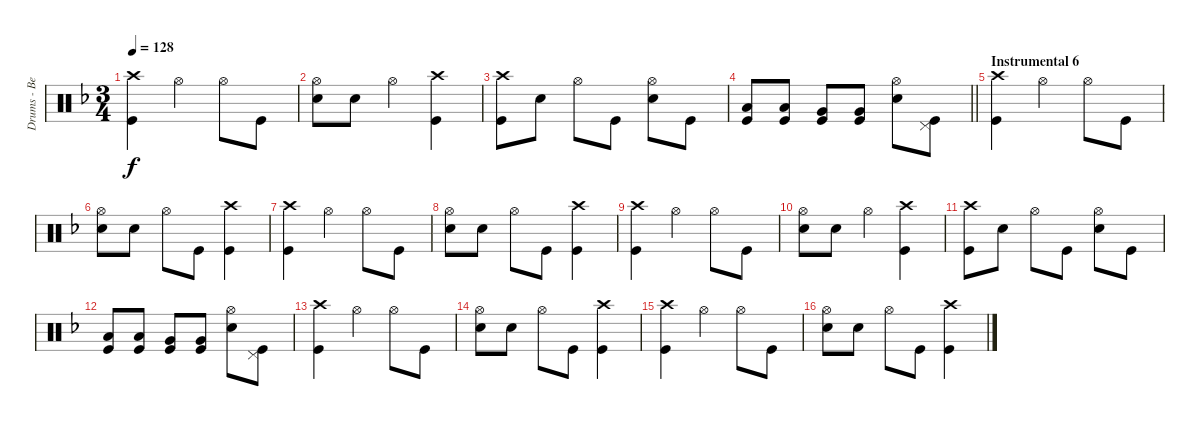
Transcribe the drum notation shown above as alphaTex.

\track ("Drums - Ben Johnston" "Drums - Be") {instrument percussion}
\staff {score}
\articulation defaults
\ts (3 4)
\tempo 128
\clef neutral
\ks dminor
("Crash high (hit)" "Kick (hit)").4{dy f} "Hi-Hat (open)".4 "Hi-Hat (open)".8 "Kick (hit)".8 |
("Hi-Hat (open)" "Snare (hit) 2").8 "Snare (hit) 2".8 "Hi-Hat (open)".4 ("Crash high (hit)" "Kick (hit)").4 |
("Crash high (hit)" "Kick (hit)").8 "Snare (hit) 2".8 "Hi-Hat (open)".8 "Kick (hit)".8 ("Hi-Hat (open)" "Snare (hit) 2").8 "Kick (hit)".8 |
\barLineRight lightlight
("Low Tom (hit)" "Kick (hit)").8 ("Low Tom (hit)" "Kick (hit)").8 ("Very Low Tom (hit)" "Kick (hit)").8 ("Very Low Tom (hit)" "Kick (hit)").8 ("Hi-Hat (open)" "Snare (hit) 2").8 ("Pedal Hi-Hat (hit)" "Kick (hit)").8 |
\section ("" "Instrumental 6")
("Crash high (hit)" "Kick (hit)").4 "Hi-Hat (open)".4 "Hi-Hat (open)".8 "Kick (hit)".8 |
("Hi-Hat (open)" "Snare (hit) 2").8 "Snare (hit) 2".8 "Hi-Hat (open)".8 "Kick (hit)".8 ("Crash high (hit)" "Kick (hit)").4 |
("Crash high (hit)" "Kick (hit)").4 "Hi-Hat (open)".4 "Hi-Hat (open)".8 "Kick (hit)".8 |
("Hi-Hat (open)" "Snare (hit) 2").8 "Snare (hit) 2".8 "Hi-Hat (open)".8 "Kick (hit)".8 ("Crash high (hit)" "Kick (hit)").4 |
("Crash high (hit)" "Kick (hit)").4 "Hi-Hat (open)".4 "Hi-Hat (open)".8 "Kick (hit)".8 |
("Hi-Hat (open)" "Snare (hit) 2").8 "Snare (hit) 2".8 "Hi-Hat (open)".4 ("Crash high (hit)" "Kick (hit)").4 |
("Crash high (hit)" "Kick (hit)").8 "Snare (hit) 2".8 "Hi-Hat (open)".8 "Kick (hit)".8 ("Hi-Hat (open)" "Snare (hit) 2").8 "Kick (hit)".8 |
("Low Tom (hit)" "Kick (hit)").8 ("Low Tom (hit)" "Kick (hit)").8 ("Very Low Tom (hit)" "Kick (hit)").8 ("Very Low Tom (hit)" "Kick (hit)").8 ("Hi-Hat (open)" "Snare (hit) 2").8 ("Pedal Hi-Hat (hit)" "Kick (hit)").8 |
("Crash high (hit)" "Kick (hit)").4 "Hi-Hat (open)".4 "Hi-Hat (open)".8 "Kick (hit)".8 |
("Hi-Hat (open)" "Snare (hit) 2").8 "Snare (hit) 2".8 "Hi-Hat (open)".8 "Kick (hit)".8 ("Crash high (hit)" "Kick (hit)").4 |
("Crash high (hit)" "Kick (hit)").4 "Hi-Hat (open)".4 "Hi-Hat (open)".8 "Kick (hit)".8 |
("Hi-Hat (open)" "Snare (hit) 2").8 "Snare (hit) 2".8 "Hi-Hat (open)".8 "Kick (hit)".8 ("Crash high (hit)" "Kick (hit)").4
